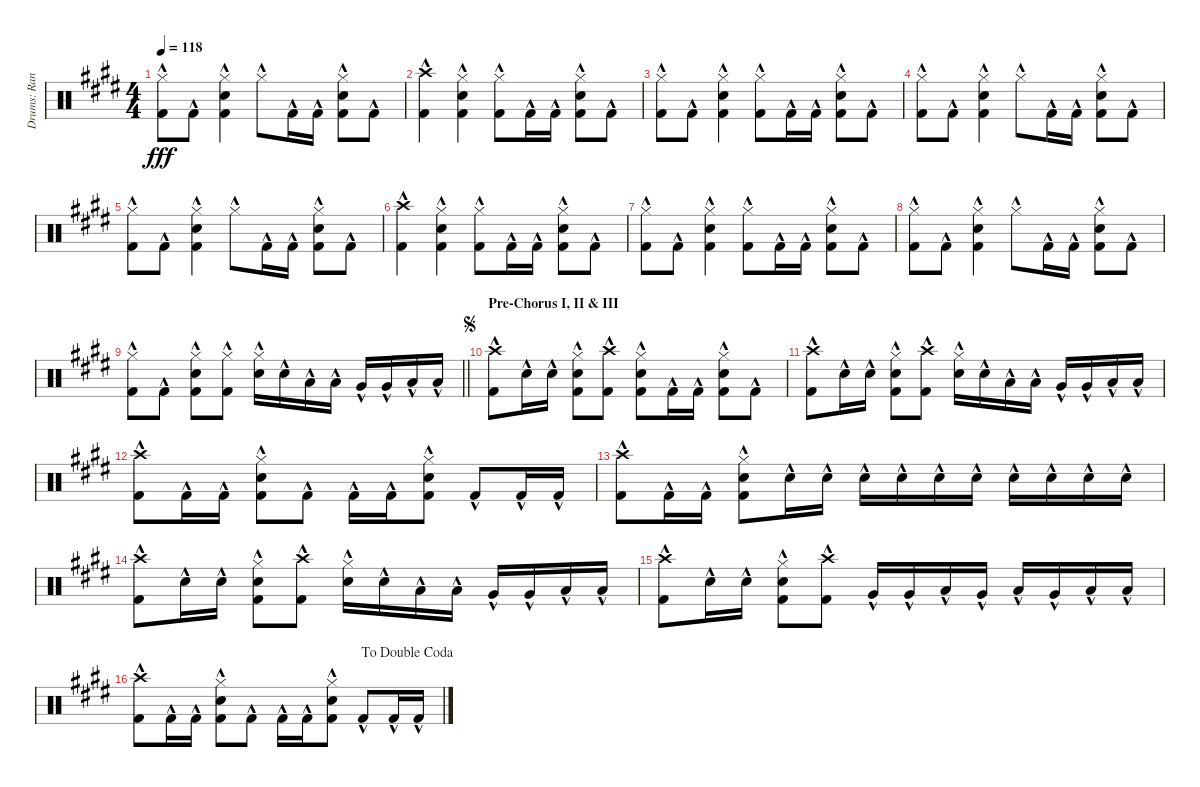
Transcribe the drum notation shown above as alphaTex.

\track ("Drums: Randy" "Drums: Ran") {instrument percussion}
\staff {score}
\articulation defaults
\ts (4 4)
\tempo 118
\clef neutral
\ks e
("Hi-Hat (closed)"{hac} "Kick (hit) 2"{hac}).8{dy fff} "Kick (hit) 2"{hac}.8 ("Hi-Hat (closed)"{hac} "Snare (hit) 2"{hac} "Kick (hit) 2"{hac}).4 "Hi-Hat (closed)"{hac}.8 "Kick (hit) 2"{hac}.16 "Kick (hit) 2"{hac}.16 ("Hi-Hat (closed)"{hac} "Snare (hit) 2"{hac} "Kick (hit) 2"{hac}).8 "Kick (hit) 2"{hac}.8 |
("Crash high (hit)"{hac} "Kick (hit) 2"{hac}).4 ("Hi-Hat (closed)"{hac} "Snare (hit) 2"{hac} "Kick (hit) 2"{hac}).4 ("Hi-Hat (closed)"{hac} "Kick (hit) 2"{hac}).8 "Kick (hit) 2"{hac}.16 "Kick (hit) 2"{hac}.16 ("Hi-Hat (closed)"{hac} "Snare (hit) 2"{hac} "Kick (hit) 2"{hac}).8 "Kick (hit) 2"{hac}.8 |
("Hi-Hat (closed)"{hac} "Kick (hit) 2"{hac}).8 "Kick (hit) 2"{hac}.8 ("Hi-Hat (closed)"{hac} "Snare (hit) 2"{hac} "Kick (hit) 2"{hac}).4 ("Hi-Hat (closed)"{hac} "Kick (hit) 2"{hac}).8 "Kick (hit) 2"{hac}.16 "Kick (hit) 2"{hac}.16 ("Hi-Hat (closed)"{hac} "Snare (hit) 2"{hac} "Kick (hit) 2"{hac}).8 "Kick (hit) 2"{hac}.8 |
("Hi-Hat (closed)"{hac} "Kick (hit) 2"{hac}).8 "Kick (hit) 2"{hac}.8 ("Hi-Hat (closed)"{hac} "Snare (hit) 2"{hac} "Kick (hit) 2"{hac}).4 "Hi-Hat (closed)"{hac}.8 "Kick (hit) 2"{hac}.16 "Kick (hit) 2"{hac}.16 ("Hi-Hat (closed)"{hac} "Snare (hit) 2"{hac} "Kick (hit) 2"{hac}).8 "Kick (hit) 2"{hac}.8 |
("Hi-Hat (closed)"{hac} "Kick (hit) 2"{hac}).8 "Kick (hit) 2"{hac}.8 ("Hi-Hat (closed)"{hac} "Snare (hit) 2"{hac} "Kick (hit) 2"{hac}).4 "Hi-Hat (closed)"{hac}.8 "Kick (hit) 2"{hac}.16 "Kick (hit) 2"{hac}.16 ("Hi-Hat (closed)"{hac} "Snare (hit) 2"{hac} "Kick (hit) 2"{hac}).8 "Kick (hit) 2"{hac}.8 |
("Crash high (hit)"{hac} "Kick (hit) 2"{hac}).4 ("Hi-Hat (closed)"{hac} "Snare (hit) 2"{hac} "Kick (hit) 2"{hac}).4 ("Hi-Hat (closed)"{hac} "Kick (hit) 2"{hac}).8 "Kick (hit) 2"{hac}.16 "Kick (hit) 2"{hac}.16 ("Hi-Hat (closed)"{hac} "Snare (hit) 2"{hac} "Kick (hit) 2"{hac}).8 "Kick (hit) 2"{hac}.8 |
("Hi-Hat (closed)"{hac} "Kick (hit) 2"{hac}).8 "Kick (hit) 2"{hac}.8 ("Hi-Hat (closed)"{hac} "Snare (hit) 2"{hac} "Kick (hit) 2"{hac}).4 ("Hi-Hat (closed)"{hac} "Kick (hit) 2"{hac}).8 "Kick (hit) 2"{hac}.16 "Kick (hit) 2"{hac}.16 ("Hi-Hat (closed)"{hac} "Snare (hit) 2"{hac} "Kick (hit) 2"{hac}).8 "Kick (hit) 2"{hac}.8 |
("Hi-Hat (closed)"{hac} "Kick (hit) 2"{hac}).8 "Kick (hit) 2"{hac}.8 ("Hi-Hat (closed)"{hac} "Snare (hit) 2"{hac} "Kick (hit) 2"{hac}).4 "Hi-Hat (closed)"{hac}.8 "Kick (hit) 2"{hac}.16 "Kick (hit) 2"{hac}.16 ("Hi-Hat (closed)"{hac} "Snare (hit) 2"{hac} "Kick (hit) 2"{hac}).8 "Kick (hit) 2"{hac}.8 |
\barLineRight lightlight
("Hi-Hat (closed)"{hac} "Kick (hit) 2"{hac}).8 "Kick (hit) 2"{hac}.8 ("Hi-Hat (closed)"{hac} "Snare (hit) 2"{hac} "Kick (hit) 2"{hac}).8 ("Hi-Hat (closed)"{hac} "Kick (hit) 2"{hac}).8 ("Hi-Hat (closed)"{hac} "Snare (hit) 2"{hac}).16 "Snare (hit) 2"{hac}.16 "Low Tom (hit)"{hac}.16 "Low Tom (hit)"{hac}.16 "Very Low Tom (hit)"{hac}.16 "Very Low Tom (hit)"{hac}.16 "Low Tom (hit)"{hac}.16 "Low Tom (hit)"{hac}.16 |
\section ("" "Pre-Chorus I, II & III")
\jump segno
("Crash high (hit)"{hac} "Kick (hit) 2"{hac}).8 "Snare (hit) 2"{hac}.16 "Snare (hit) 2"{hac}.16 ("Hi-Hat (closed)"{hac} "Snare (hit) 2"{hac} "Kick (hit) 2"{hac}).8 ("Crash high (hit)"{hac} "Kick (hit) 2"{hac}).8 ("Hi-Hat (closed)"{hac} "Snare (hit) 2"{hac} "Kick (hit) 2"{hac}).8 "Kick (hit) 2"{hac}.16 "Kick (hit) 2"{hac}.16 ("Hi-Hat (closed)"{hac} "Snare (hit) 2"{hac} "Kick (hit) 2"{hac}).8 "Kick (hit) 2"{hac}.8 |
("Crash high (hit)"{hac} "Kick (hit) 2"{hac}).8 "Snare (hit) 2"{hac}.16 "Snare (hit) 2"{hac}.16 ("Hi-Hat (closed)"{hac} "Snare (hit) 2"{hac} "Kick (hit) 2"{hac}).8 ("Crash high (hit)"{hac} "Kick (hit) 2"{hac}).8 ("Hi-Hat (closed)"{hac} "Snare (hit) 2"{hac}).16 "Snare (hit) 2"{hac}.16 "Low Tom (hit)"{hac}.16 "Low Tom (hit)"{hac}.16 "Very Low Tom (hit)"{hac}.16 "Very Low Tom (hit)"{hac}.16 "Low Tom (hit)"{hac}.16 "Low Tom (hit)"{hac}.16 |
("Crash high (hit)"{hac} "Kick (hit) 2"{hac}).8 "Kick (hit) 2"{hac}.16 "Kick (hit) 2"{hac}.16 ("Hi-Hat (closed)"{hac} "Snare (hit) 2"{hac} "Kick (hit) 2"{hac}).8 "Kick (hit) 2"{hac}.8 "Kick (hit) 2"{hac}.16 "Kick (hit) 2"{hac}.16 ("Hi-Hat (closed)"{hac} "Snare (hit) 2"{hac} "Kick (hit) 2"{hac}).8 "Kick (hit) 2"{hac}.8 "Kick (hit) 2"{hac}.16 "Kick (hit) 2"{hac}.16 |
("Crash high (hit)"{hac} "Kick (hit) 2"{hac}).8 "Kick (hit) 2"{hac}.16 "Kick (hit) 2"{hac}.16 ("Hi-Hat (closed)"{hac} "Snare (hit) 2"{hac} "Kick (hit) 2"{hac}).8 "Snare (hit) 2"{hac}.16 "Snare (hit) 2"{hac}.16 "Snare (hit) 2"{hac}.16 "Snare (hit) 2"{hac}.16 "Snare (hit) 2"{hac}.16 "Snare (hit) 2"{hac}.16 "Snare (hit) 2"{hac}.16 "Snare (hit) 2"{hac}.16 "Snare (hit) 2"{hac}.16 "Snare (hit) 2"{hac}.16 |
("Crash high (hit)"{hac} "Kick (hit) 2"{hac}).8 "Snare (hit) 2"{hac}.16 "Snare (hit) 2"{hac}.16 ("Hi-Hat (closed)"{hac} "Snare (hit) 2"{hac} "Kick (hit) 2"{hac}).8 ("Crash high (hit)"{hac} "Kick (hit) 2"{hac}).8 ("Hi-Hat (closed)"{hac} "Snare (hit) 2"{hac}).16 "Snare (hit) 2"{hac}.16 "Low Tom (hit)"{hac}.16 "Low Tom (hit)"{hac}.16 "Very Low Tom (hit)"{hac}.16 "Very Low Tom (hit)"{hac}.16 "Low Tom (hit)"{hac}.16 "Low Tom (hit)"{hac}.16 |
("Crash high (hit)"{hac} "Kick (hit) 2"{hac}).8 "Snare (hit) 2"{hac}.16 "Snare (hit) 2"{hac}.16 ("Hi-Hat (closed)"{hac} "Snare (hit) 2"{hac} "Kick (hit) 2"{hac}).8 ("Crash high (hit)"{hac} "Kick (hit) 2"{hac}).8 "Very Low Tom (hit)"{hac}.16 "Very Low Tom (hit)"{hac}.16 "Low Tom (hit)"{hac}.16 "Very Low Tom (hit)"{hac}.16 "Low Tom (hit)"{hac}.16 "Very Low Tom (hit)"{hac}.16 "Low Floor Tom (hit)"{hac}.16 "Low Floor Tom (hit)"{hac}.16 |
\jump dadoublecoda
("Crash high (hit)"{hac} "Kick (hit) 2"{hac}).8 "Kick (hit) 2"{hac}.16 "Kick (hit) 2"{hac}.16 ("Hi-Hat (closed)"{hac} "Snare (hit) 2"{hac} "Kick (hit) 2"{hac}).8 "Kick (hit) 2"{hac}.8 "Kick (hit) 2"{hac}.16 "Kick (hit) 2"{hac}.16 ("Hi-Hat (closed)"{hac} "Snare (hit) 2"{hac} "Kick (hit) 2"{hac}).8 "Kick (hit) 2"{hac}.8 "Kick (hit) 2"{hac}.16 "Kick (hit) 2"{hac}.16
